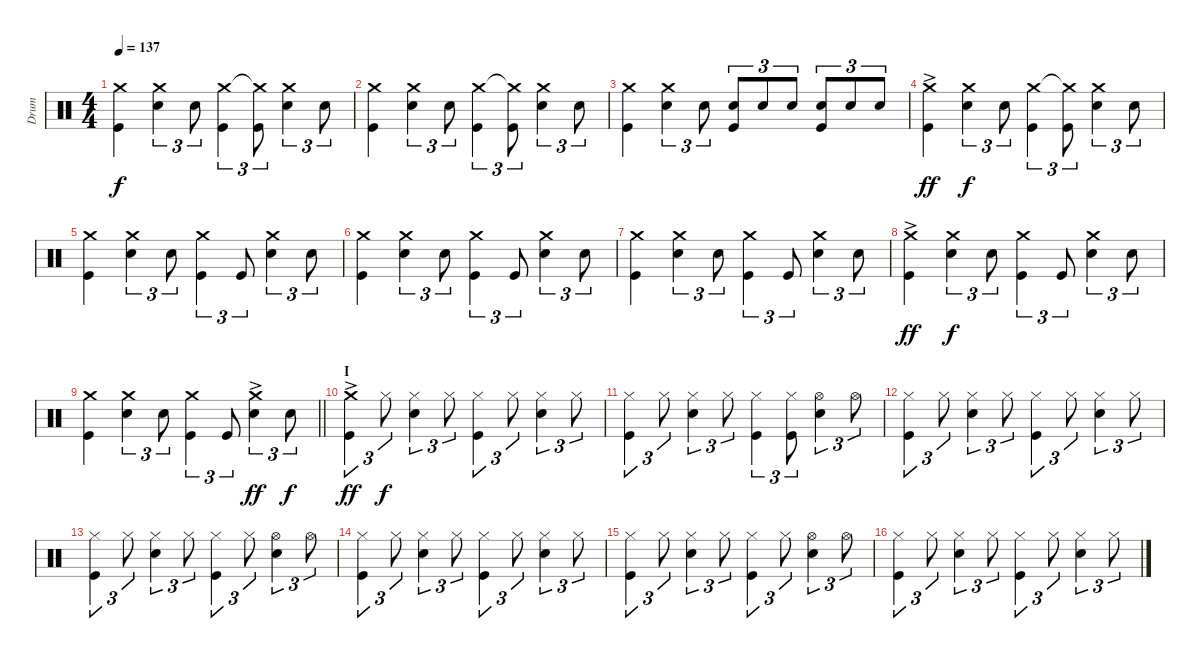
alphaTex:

\track ("Drum" "Drum") {instrument percussion}
\staff {score}
\articulation defaults
\ts (4 4)
\tempo 137
\clef neutral
\ks c
("Crash medium (hit)" "Kick (hit)").4{dy f} ("Crash medium (hit)" "Snare (hit) 2").4{tu (3 2)} "Snare (hit) 2".8{tu (3 2)} ("Crash medium (hit)" "Kick (hit)").4{tu (3 2)} ("Crash medium (hit)"{t} "Kick (hit)").8{tu (3 2)} ("Crash medium (hit)" "Snare (hit) 2").4{tu (3 2)} "Snare (hit) 2".8{tu (3 2)} |
("Crash medium (hit)" "Kick (hit)").4 ("Crash medium (hit)" "Snare (hit) 2").4{tu (3 2)} "Snare (hit) 2".8{tu (3 2)} ("Crash medium (hit)" "Kick (hit)").4{tu (3 2)} ("Crash medium (hit)"{t} "Kick (hit)").8{tu (3 2)} ("Crash medium (hit)" "Snare (hit) 2").4{tu (3 2)} "Snare (hit) 2".8{tu (3 2)} |
("Crash medium (hit)" "Kick (hit)").4 ("Crash medium (hit)" "Snare (hit) 2").4{tu (3 2)} "Snare (hit) 2".8{tu (3 2)} ("Snare (hit) 2" "Kick (hit)").8{tu (3 2)} "Snare (hit) 2".8{tu (3 2)} "Snare (hit) 2".8{tu (3 2)} ("Snare (hit) 2" "Kick (hit)").8{tu (3 2)} "Snare (hit) 2".8{tu (3 2)} "Snare (hit) 2".8{tu (3 2)} |
("Crash medium (hit)"{ac} "Kick (hit)"{ac}).4{dy ff} ("Crash medium (hit)" "Snare (hit) 2").4{tu (3 2) dy f} "Snare (hit) 2".8{tu (3 2)} ("Crash medium (hit)" "Kick (hit)").4{tu (3 2)} ("Crash medium (hit)"{t} "Kick (hit)").8{tu (3 2)} ("Crash medium (hit)" "Snare (hit) 2").4{tu (3 2)} "Snare (hit) 2".8{tu (3 2)} |
("Crash medium (hit)" "Kick (hit)").4 ("Crash medium (hit)" "Snare (hit) 2").4{tu (3 2)} "Snare (hit) 2".8{tu (3 2)} ("Crash medium (hit)" "Kick (hit)").4{tu (3 2)} "Kick (hit)".8{tu (3 2)} ("Crash medium (hit)" "Snare (hit) 2").4{tu (3 2)} "Snare (hit) 2".8{tu (3 2)} |
("Crash medium (hit)" "Kick (hit)").4 ("Crash medium (hit)" "Snare (hit) 2").4{tu (3 2)} "Snare (hit) 2".8{tu (3 2)} ("Crash medium (hit)" "Kick (hit)").4{tu (3 2)} "Kick (hit)".8{tu (3 2)} ("Crash medium (hit)" "Snare (hit) 2").4{tu (3 2)} "Snare (hit) 2".8{tu (3 2)} |
("Crash medium (hit)" "Kick (hit)").4 ("Crash medium (hit)" "Snare (hit) 2").4{tu (3 2)} "Snare (hit) 2".8{tu (3 2)} ("Crash medium (hit)" "Kick (hit)").4{tu (3 2)} "Kick (hit)".8{tu (3 2)} ("Crash medium (hit)" "Snare (hit) 2").4{tu (3 2)} "Snare (hit) 2".8{tu (3 2)} |
("Crash medium (hit)"{ac} "Kick (hit)"{ac}).4{dy ff} ("Crash medium (hit)" "Snare (hit) 2").4{tu (3 2) dy f} "Snare (hit) 2".8{tu (3 2)} ("Crash medium (hit)" "Kick (hit)").4{tu (3 2)} "Kick (hit)".8{tu (3 2)} ("Crash medium (hit)" "Snare (hit) 2").4{tu (3 2)} "Snare (hit) 2".8{tu (3 2)} |
\barLineRight lightlight
("Crash medium (hit)" "Kick (hit)").4 ("Crash medium (hit)" "Snare (hit) 2").4{tu (3 2)} "Snare (hit) 2".8{tu (3 2)} ("Crash medium (hit)" "Kick (hit)").4{tu (3 2)} "Kick (hit)".8{tu (3 2)} ("Crash medium (hit)"{ac} "Snare (hit) 2"{ac}).4{tu (3 2) dy ff} "Snare (hit) 2".8{tu (3 2) dy f} |
\section ("" "I")
("Crash medium (hit)"{ac} "Kick (hit)"{ac}).4{tu (3 2) dy ff} "Hi-Hat (closed)".8{tu (3 2) dy f} ("Hi-Hat (closed)" "Snare (hit) 2").4{tu (3 2)} "Hi-Hat (closed)".8{tu (3 2)} ("Hi-Hat (closed)" "Kick (hit)").4{tu (3 2)} "Hi-Hat (closed)".8{tu (3 2)} ("Hi-Hat (closed)" "Snare (hit) 2").4{tu (3 2)} "Hi-Hat (closed)".8{tu (3 2)} |
("Hi-Hat (closed)" "Kick (hit)").4{tu (3 2)} "Hi-Hat (closed)".8{tu (3 2)} ("Hi-Hat (closed)" "Snare (hit) 2").4{tu (3 2)} "Hi-Hat (closed)".8{tu (3 2)} ("Hi-Hat (closed)" "Kick (hit)").4{tu (3 2)} ("Hi-Hat (closed)" "Kick (hit)").8{tu (3 2)} ("Hi-Hat (open)" "Snare (hit) 2").4{tu (3 2)} "Hi-Hat (open)".8{tu (3 2)} |
("Hi-Hat (closed)" "Kick (hit)").4{tu (3 2)} "Hi-Hat (closed)".8{tu (3 2)} ("Hi-Hat (closed)" "Snare (hit) 2").4{tu (3 2)} "Hi-Hat (closed)".8{tu (3 2)} ("Hi-Hat (closed)" "Kick (hit)").4{tu (3 2)} "Hi-Hat (closed)".8{tu (3 2)} ("Hi-Hat (closed)" "Snare (hit) 2").4{tu (3 2)} "Hi-Hat (closed)".8{tu (3 2)} |
("Hi-Hat (closed)" "Kick (hit)").4{tu (3 2)} "Hi-Hat (closed)".8{tu (3 2)} ("Hi-Hat (closed)" "Snare (hit) 2").4{tu (3 2)} "Hi-Hat (closed)".8{tu (3 2)} ("Hi-Hat (closed)" "Kick (hit)").4{tu (3 2)} "Hi-Hat (closed)".8{tu (3 2)} ("Hi-Hat (open)" "Snare (hit) 2").4{tu (3 2)} "Hi-Hat (open)".8{tu (3 2)} |
("Hi-Hat (closed)" "Kick (hit)").4{tu (3 2)} "Hi-Hat (closed)".8{tu (3 2)} ("Hi-Hat (closed)" "Snare (hit) 2").4{tu (3 2)} "Hi-Hat (closed)".8{tu (3 2)} ("Hi-Hat (closed)" "Kick (hit)").4{tu (3 2)} "Hi-Hat (closed)".8{tu (3 2)} ("Hi-Hat (closed)" "Snare (hit) 2").4{tu (3 2)} "Hi-Hat (closed)".8{tu (3 2)} |
("Hi-Hat (closed)" "Kick (hit)").4{tu (3 2)} "Hi-Hat (closed)".8{tu (3 2)} ("Hi-Hat (closed)" "Snare (hit) 2").4{tu (3 2)} "Hi-Hat (closed)".8{tu (3 2)} ("Hi-Hat (closed)" "Kick (hit)").4{tu (3 2)} "Hi-Hat (closed)".8{tu (3 2)} ("Hi-Hat (open)" "Snare (hit) 2").4{tu (3 2)} "Hi-Hat (open)".8{tu (3 2)} |
("Hi-Hat (closed)" "Kick (hit)").4{tu (3 2)} "Hi-Hat (closed)".8{tu (3 2)} ("Hi-Hat (closed)" "Snare (hit) 2").4{tu (3 2)} "Hi-Hat (closed)".8{tu (3 2)} ("Hi-Hat (closed)" "Kick (hit)").4{tu (3 2)} "Hi-Hat (closed)".8{tu (3 2)} ("Hi-Hat (closed)" "Snare (hit) 2").4{tu (3 2)} "Hi-Hat (closed)".8{tu (3 2)}
